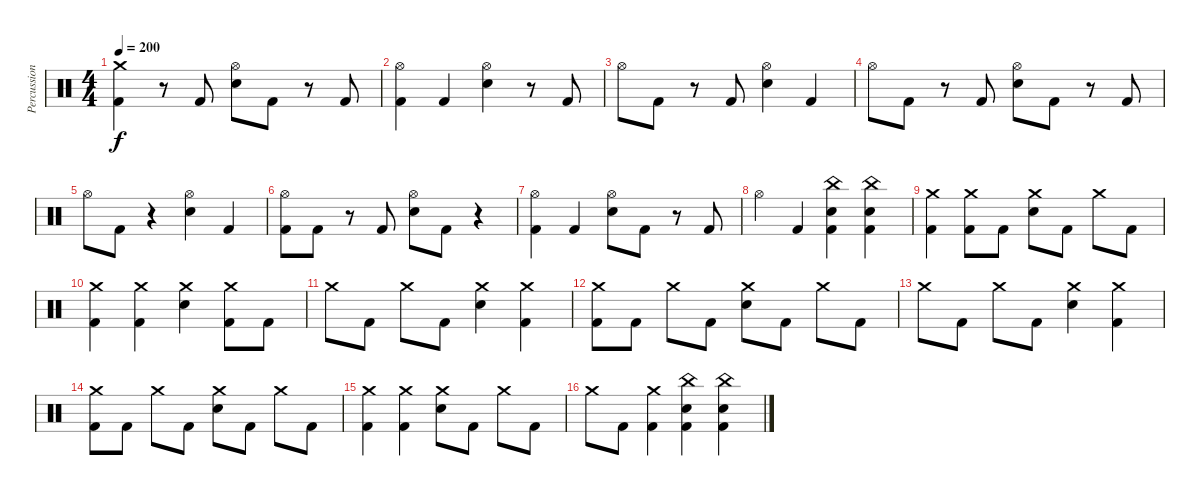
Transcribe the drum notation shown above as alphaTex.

\track ("Percussion" "Percussion") {instrument percussion}
\staff {score}
\articulation defaults
\ts (4 4)
\tempo 200
\clef neutral
\ks c
("Crash medium (hit)" "Kick (hit) 2").4{dy f} r.8 "Kick (hit) 2".8 ("Hi-Hat (open)" "Electric Snare (hit)").8 "Kick (hit) 2".8 r.8 "Kick (hit) 2".8 |
("Hi-Hat (open)" "Kick (hit) 2").4 "Kick (hit) 2".4 ("Hi-Hat (open)" "Electric Snare (hit)").4 r.8 "Kick (hit) 2".8 |
"Hi-Hat (open)".8 "Kick (hit) 2".8 r.8 "Kick (hit) 2".8 ("Hi-Hat (open)" "Electric Snare (hit)").4 "Kick (hit) 2".4 |
"Hi-Hat (open)".8 "Kick (hit) 2".8 r.8 "Kick (hit) 2".8 ("Hi-Hat (open)" "Electric Snare (hit)").8 "Kick (hit) 2".8 r.8 "Kick (hit) 2".8 |
"Hi-Hat (open)".8 "Kick (hit) 2".8 r.4 ("Hi-Hat (open)" "Electric Snare (hit)").4 "Kick (hit) 2".4 |
("Hi-Hat (open)" "Kick (hit) 2").8 "Kick (hit) 2".8 r.8 "Kick (hit) 2".8 ("Hi-Hat (open)" "Electric Snare (hit)").8 "Kick (hit) 2".8 r.4 |
("Hi-Hat (open)" "Kick (hit) 2").4 "Kick (hit) 2".4 ("Hi-Hat (open)" "Electric Snare (hit)").8 "Kick (hit) 2".8 r.8 "Kick (hit) 2".8 |
"Hi-Hat (open)".4 "Kick (hit) 2".4 ("China (hit)" "Electric Snare (hit)" "Kick (hit) 2").4 ("China (hit)" "Electric Snare (hit)" "Kick (hit) 2").4 |
("Crash medium (hit)" "Kick (hit) 2").4 ("Crash medium (hit)" "Kick (hit) 2").8 "Kick (hit) 2".8 ("Crash medium (hit)" "Electric Snare (hit)").8 "Kick (hit) 2".8 "Crash medium (hit)".8 "Kick (hit) 2".8 |
("Crash medium (hit)" "Kick (hit) 2").4 ("Crash medium (hit)" "Kick (hit) 2").4 ("Crash medium (hit)" "Electric Snare (hit)").4 ("Crash medium (hit)" "Kick (hit) 2").8 "Kick (hit) 2".8 |
"Crash medium (hit)".8 "Kick (hit) 2".8 "Crash medium (hit)".8 "Kick (hit) 2".8 ("Crash medium (hit)" "Electric Snare (hit)").4 ("Crash medium (hit)" "Kick (hit) 2").4 |
("Crash medium (hit)" "Kick (hit) 2").8 "Kick (hit) 2".8 "Crash medium (hit)".8 "Kick (hit) 2".8 ("Crash medium (hit)" "Electric Snare (hit)").8 "Kick (hit) 2".8 "Crash medium (hit)".8 "Kick (hit) 2".8 |
"Crash medium (hit)".8 "Kick (hit) 2".8 "Crash medium (hit)".8 "Kick (hit) 2".8 ("Crash medium (hit)" "Electric Snare (hit)").4 ("Crash medium (hit)" "Kick (hit) 2").4 |
("Crash medium (hit)" "Kick (hit) 2").8 "Kick (hit) 2".8 "Crash medium (hit)".8 "Kick (hit) 2".8 ("Crash medium (hit)" "Electric Snare (hit)").8 "Kick (hit) 2".8 "Crash medium (hit)".8 "Kick (hit) 2".8 |
("Crash medium (hit)" "Kick (hit) 2").4 ("Crash medium (hit)" "Kick (hit) 2").4 ("Crash medium (hit)" "Electric Snare (hit)").8 "Kick (hit) 2".8 "Crash medium (hit)".8 "Kick (hit) 2".8 |
"Crash medium (hit)".8 "Kick (hit) 2".8 ("Crash medium (hit)" "Kick (hit) 2").4 ("China (hit)" "Electric Snare (hit)" "Kick (hit) 2").4 ("China (hit)" "Electric Snare (hit)" "Kick (hit) 2").4
